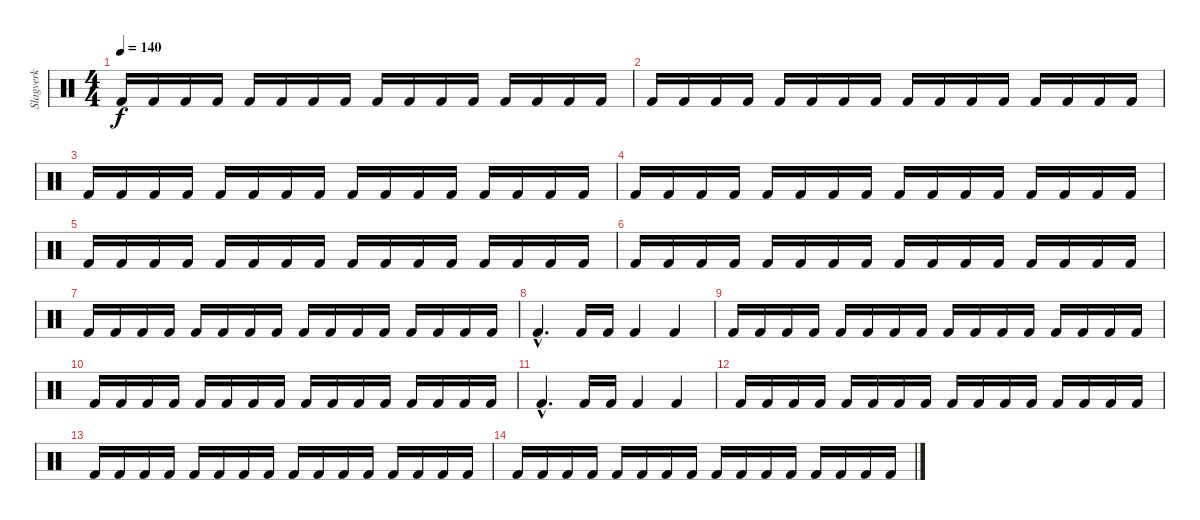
\track ("Slagverk" "Slagverk") {instrument percussion}
\staff {score}
\articulation defaults
\ts (4 4)
\tempo 140
\clef neutral
\ks c "Kick (hit) 2".16{dy f} "Kick (hit) 2".16 "Kick (hit) 2".16 "Kick (hit) 2".16 "Kick (hit) 2".16 "Kick (hit) 2".16 "Kick (hit) 2".16 "Kick (hit) 2".16 "Kick (hit) 2".16 "Kick (hit) 2".16 "Kick (hit) 2".16 "Kick (hit) 2".16 "Kick (hit) 2".16 "Kick (hit) 2".16 "Kick (hit) 2".16 "Kick (hit) 2".16
|
"Kick (hit) 2".16 "Kick (hit) 2".16 "Kick (hit) 2".16 "Kick (hit) 2".16 "Kick (hit) 2".16 "Kick (hit) 2".16 "Kick (hit) 2".16 "Kick (hit) 2".16 "Kick (hit) 2".16 "Kick (hit) 2".16 "Kick (hit) 2".16 "Kick (hit) 2".16 "Kick (hit) 2".16 "Kick (hit) 2".16 "Kick (hit) 2".16 "Kick (hit) 2".16 |
"Kick (hit) 2".16 "Kick (hit) 2".16 "Kick (hit) 2".16 "Kick (hit) 2".16 "Kick (hit) 2".16 "Kick (hit) 2".16 "Kick (hit) 2".16 "Kick (hit) 2".16 "Kick (hit) 2".16 "Kick (hit) 2".16 "Kick (hit) 2".16 "Kick (hit) 2".16 "Kick (hit) 2".16 "Kick (hit) 2".16 "Kick (hit) 2".16 "Kick (hit) 2".16 |
"Kick (hit) 2".16 "Kick (hit) 2".16 "Kick (hit) 2".16 "Kick (hit) 2".16 "Kick (hit) 2".16 "Kick (hit) 2".16 "Kick (hit) 2".16 "Kick (hit) 2".16 "Kick (hit) 2".16 "Kick (hit) 2".16 "Kick (hit) 2".16 "Kick (hit) 2".16 "Kick (hit) 2".16 "Kick (hit) 2".16 "Kick (hit) 2".16 "Kick (hit) 2".16 |
"Kick (hit) 2".16 "Kick (hit) 2".16 "Kick (hit) 2".16 "Kick (hit) 2".16 "Kick (hit) 2".16 "Kick (hit) 2".16 "Kick (hit) 2".16 "Kick (hit) 2".16 "Kick (hit) 2".16 "Kick (hit) 2".16 "Kick (hit) 2".16 "Kick (hit) 2".16 "Kick (hit) 2".16 "Kick (hit) 2".16 "Kick (hit) 2".16 "Kick (hit) 2".16 |
"Kick (hit) 2".16 "Kick (hit) 2".16 "Kick (hit) 2".16 "Kick (hit) 2".16 "Kick (hit) 2".16 "Kick (hit) 2".16 "Kick (hit) 2".16 "Kick (hit) 2".16 "Kick (hit) 2".16 "Kick (hit) 2".16 "Kick (hit) 2".16 "Kick (hit) 2".16 "Kick (hit) 2".16 "Kick (hit) 2".16 "Kick (hit) 2".16 "Kick (hit) 2".16 |
"Kick (hit) 2".16 "Kick (hit) 2".16 "Kick (hit) 2".16 "Kick (hit) 2".16 "Kick (hit) 2".16 "Kick (hit) 2".16 "Kick (hit) 2".16 "Kick (hit) 2".16 "Kick (hit) 2".16 "Kick (hit) 2".16 "Kick (hit) 2".16 "Kick (hit) 2".16 "Kick (hit) 2".16 "Kick (hit) 2".16 "Kick (hit) 2".16 "Kick (hit) 2".16 |
"Kick (hit) 2"{hac}.4{d} "Kick (hit) 2".16 "Kick (hit) 2".16 "Kick (hit) 2".4 "Kick (hit) 2".4 |
"Kick (hit) 2".16 "Kick (hit) 2".16 "Kick (hit) 2".16 "Kick (hit) 2".16 "Kick (hit) 2".16 "Kick (hit) 2".16 "Kick (hit) 2".16 "Kick (hit) 2".16 "Kick (hit) 2".16 "Kick (hit) 2".16 "Kick (hit) 2".16 "Kick (hit) 2".16 "Kick (hit) 2".16 "Kick (hit) 2".16 "Kick (hit) 2".16 "Kick (hit) 2".16 |
"Kick (hit) 2".16 "Kick (hit) 2".16 "Kick (hit) 2".16 "Kick (hit) 2".16 "Kick (hit) 2".16 "Kick (hit) 2".16 "Kick (hit) 2".16 "Kick (hit) 2".16 "Kick (hit) 2".16 "Kick (hit) 2".16 "Kick (hit) 2".16 "Kick (hit) 2".16 "Kick (hit) 2".16 "Kick (hit) 2".16 "Kick (hit) 2".16 "Kick (hit) 2".16 |
"Kick (hit) 2"{hac}.4{d} "Kick (hit) 2".16 "Kick (hit) 2".16 "Kick (hit) 2".4 "Kick (hit) 2".4 |
"Kick (hit) 2".16 "Kick (hit) 2".16 "Kick (hit) 2".16 "Kick (hit) 2".16 "Kick (hit) 2".16 "Kick (hit) 2".16 "Kick (hit) 2".16 "Kick (hit) 2".16 "Kick (hit) 2".16 "Kick (hit) 2".16 "Kick (hit) 2".16 "Kick (hit) 2".16 "Kick (hit) 2".16 "Kick (hit) 2".16 "Kick (hit) 2".16 "Kick (hit) 2".16 |
"Kick (hit) 2".16 "Kick (hit) 2".16 "Kick (hit) 2".16 "Kick (hit) 2".16 "Kick (hit) 2".16 "Kick (hit) 2".16 "Kick (hit) 2".16 "Kick (hit) 2".16 "Kick (hit) 2".16 "Kick (hit) 2".16 "Kick (hit) 2".16 "Kick (hit) 2".16 "Kick (hit) 2".16 "Kick (hit) 2".16 "Kick (hit) 2".16 "Kick (hit) 2".16 |
"Kick (hit) 2".16 "Kick (hit) 2".16 "Kick (hit) 2".16 "Kick (hit) 2".16 "Kick (hit) 2".16 "Kick (hit) 2".16 "Kick (hit) 2".16 "Kick (hit) 2".16 "Kick (hit) 2".16 "Kick (hit) 2".16 "Kick (hit) 2".16 "Kick (hit) 2".16 "Kick (hit) 2".16 "Kick (hit) 2".16 "Kick (hit) 2".16 "Kick (hit) 2".16
